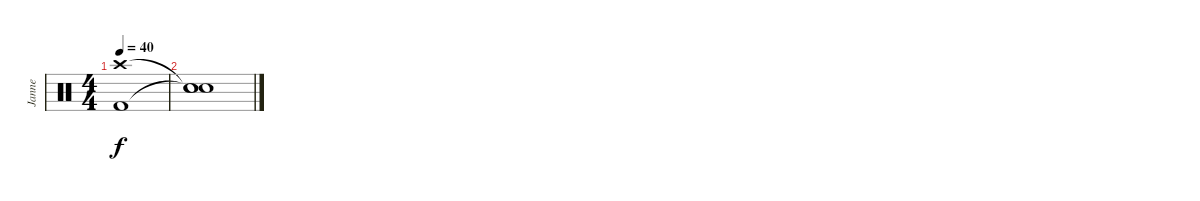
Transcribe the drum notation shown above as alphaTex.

\track ("Janne" "Janne") {instrument percussion}
\staff {score}
\articulation defaults
\ts (4 4)
\tempo 40
\clef neutral
\ks c
("Crash high (hit)" "Kick (hit) 2").1{dy f} |
("Snare (hit)"{t} "Snare (hit)"{t} "Snare (hit)").1
